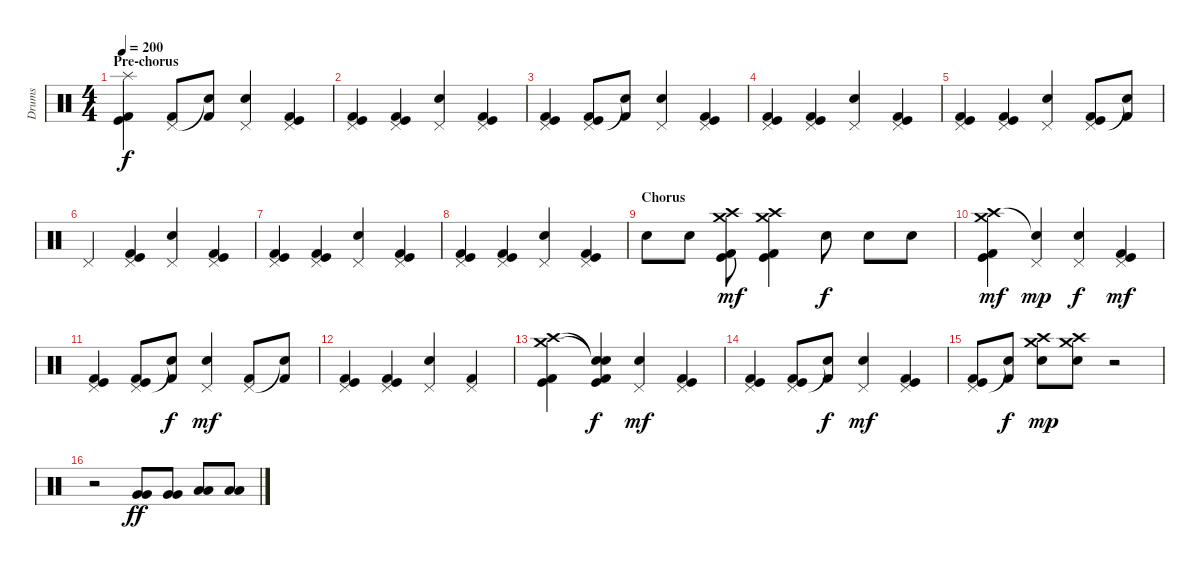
\track ("Drums" "Drums") {instrument percussion}
\staff {score}
\articulation defaults
\ts (4 4)
\section ("" "Pre-chorus")
\tempo 200
\clef neutral
\ks c
("Splash (hit)" "Kick (hit)" "Kick (hit) 2").4{dy f} ("Pedal Hi-Hat (hit)" "Kick (hit) 2").8 ("Snare (hit)"{t} "Kick (hit) 2").8 ("Pedal Hi-Hat (hit)" "Snare (hit) 2").4 ("Pedal Hi-Hat (hit)" "Kick (hit)" "Kick (hit) 2").4 |
("Pedal Hi-Hat (hit)" "Kick (hit)" "Kick (hit) 2").4 ("Pedal Hi-Hat (hit)" "Kick (hit)" "Kick (hit) 2").4 ("Pedal Hi-Hat (hit)" "Snare (hit) 2").4 ("Pedal Hi-Hat (hit)" "Kick (hit)" "Kick (hit) 2").4 |
("Pedal Hi-Hat (hit)" "Kick (hit)" "Kick (hit) 2").4 ("Pedal Hi-Hat (hit)" "Kick (hit)" "Kick (hit) 2").8 ("Snare (hit)"{t} "Kick (hit) 2").8 ("Pedal Hi-Hat (hit)" "Snare (hit) 2").4 ("Pedal Hi-Hat (hit)" "Kick (hit)" "Kick (hit) 2").4 |
("Pedal Hi-Hat (hit)" "Kick (hit)" "Kick (hit) 2").4 ("Pedal Hi-Hat (hit)" "Kick (hit)" "Kick (hit) 2").4 ("Pedal Hi-Hat (hit)" "Snare (hit) 2").4 ("Pedal Hi-Hat (hit)" "Kick (hit)" "Kick (hit) 2").4 |
("Pedal Hi-Hat (hit)" "Kick (hit)" "Kick (hit) 2").4 ("Pedal Hi-Hat (hit)" "Kick (hit)" "Kick (hit) 2").4 ("Pedal Hi-Hat (hit)" "Snare (hit) 2").4 ("Pedal Hi-Hat (hit)" "Kick (hit)" "Kick (hit) 2").8 ("Snare (hit)"{t} "Kick (hit) 2").8 |
"Pedal Hi-Hat (hit)".4 ("Pedal Hi-Hat (hit)" "Kick (hit)" "Kick (hit) 2").4 ("Pedal Hi-Hat (hit)" "Snare (hit) 2").4 ("Pedal Hi-Hat (hit)" "Kick (hit)" "Kick (hit) 2").4 |
("Pedal Hi-Hat (hit)" "Kick (hit)" "Kick (hit) 2").4 ("Pedal Hi-Hat (hit)" "Kick (hit)" "Kick (hit) 2").4 ("Pedal Hi-Hat (hit)" "Snare (hit) 2").4 ("Pedal Hi-Hat (hit)" "Kick (hit)" "Kick (hit) 2").4 |
("Pedal Hi-Hat (hit)" "Kick (hit)" "Kick (hit) 2").4 ("Pedal Hi-Hat (hit)" "Kick (hit)" "Kick (hit) 2").4 ("Pedal Hi-Hat (hit)" "Snare (hit) 2").4 ("Pedal Hi-Hat (hit)" "Kick (hit)" "Kick (hit) 2").4 |
\section ("" "Chorus")
"Snare (hit) 2".8 "Snare (hit) 2".8 ("Crash high (hit)" "Crash medium (hit)" "Kick (hit)" "Kick (hit) 2").8{dy mf} ("Crash high (hit)" "Crash medium (hit)" "Kick (hit)" "Kick (hit) 2").4 "Snare (hit) 2".8{dy f} "Snare (hit) 2".8 "Snare (hit) 2".8 |
("Crash high (hit)" "Crash medium (hit)" "Kick (hit)" "Kick (hit) 2").4{dy mf} ("Snare (hit)"{t} "Pedal Hi-Hat (hit)").4{dy mp} ("Pedal Hi-Hat (hit)" "Snare (hit) 2").4{dy f} ("Pedal Hi-Hat (hit)" "Kick (hit)" "Kick (hit) 2").4{dy mf} |
("Pedal Hi-Hat (hit)" "Kick (hit)" "Kick (hit) 2").4 ("Pedal Hi-Hat (hit)" "Kick (hit)" "Kick (hit) 2").8 ("Snare (hit)"{t} "Kick (hit) 2").8{dy f} ("Pedal Hi-Hat (hit)" "Snare (hit) 2").4{dy mf} ("Pedal Hi-Hat (hit)" "Kick (hit) 2").8 ("Snare (hit)"{t} "Kick (hit) 2").8 |
("Pedal Hi-Hat (hit)" "Kick (hit)" "Kick (hit) 2").4 ("Pedal Hi-Hat (hit)" "Kick (hit)" "Kick (hit) 2").4 ("Pedal Hi-Hat (hit)" "Snare (hit) 2").4 ("Pedal Hi-Hat (hit)" "Kick (hit) 2").4 |
("Crash high (hit)" "Crash medium (hit)" "Kick (hit)" "Kick (hit) 2").4 ("Snare (hit)"{t} "Snare (hit)"{t} "Kick (hit)" "Kick (hit) 2").4{dy f} ("Pedal Hi-Hat (hit)" "Snare (hit) 2").4{dy mf} ("Pedal Hi-Hat (hit)" "Kick (hit)" "Kick (hit) 2").4 |
("Pedal Hi-Hat (hit)" "Kick (hit)" "Kick (hit) 2").4 ("Pedal Hi-Hat (hit)" "Kick (hit)" "Kick (hit) 2").8 ("Snare (hit)"{t} "Kick (hit) 2").8{dy f} ("Pedal Hi-Hat (hit)" "Snare (hit) 2").4{dy mf} ("Pedal Hi-Hat (hit)" "Kick (hit)" "Kick (hit) 2").4 |
("Pedal Hi-Hat (hit)" "Kick (hit)" "Kick (hit) 2").8 ("Snare (hit)"{t} "Kick (hit) 2").8{dy f} ("Crash high (hit)" "Crash medium (hit)" "Snare (hit) 2").8{dy mp} ("Crash high (hit)" "Crash medium (hit)" "Snare (hit) 2").8 r.2 |
r.2 ("Very Low Tom (hit)" "Very Low Tom (hit)").8{dy ff} ("Very Low Tom (hit)" "Very Low Tom (hit)").8 ("Low Tom (hit)" "Low Tom (hit)").8 ("Low Tom (hit)" "Low Tom (hit)").8
